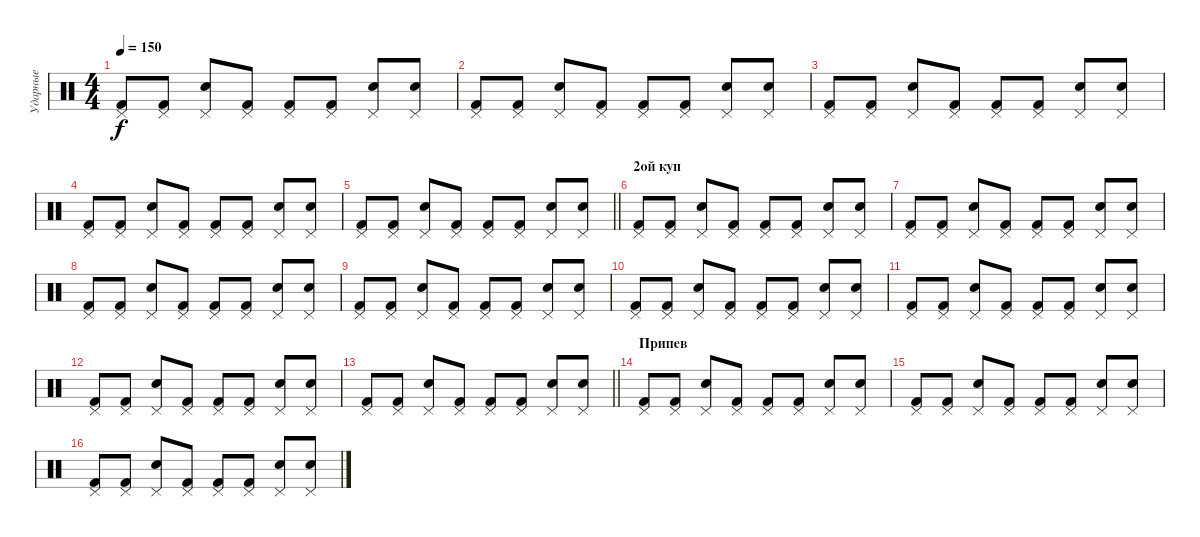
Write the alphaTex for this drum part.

\track ("Ударные" "Ударные") {instrument percussion}
\staff {score}
\articulation defaults
\ts (4 4)
\tempo 150
\clef neutral
\ks c
("Pedal Hi-Hat (hit)" "Kick (hit) 2").8{dy f} ("Pedal Hi-Hat (hit)" "Kick (hit) 2").8 ("Pedal Hi-Hat (hit)" "Electric Snare (hit)").8 ("Pedal Hi-Hat (hit)" "Kick (hit) 2").8 ("Pedal Hi-Hat (hit)" "Kick (hit) 2").8 ("Pedal Hi-Hat (hit)" "Kick (hit) 2").8 ("Pedal Hi-Hat (hit)" "Electric Snare (hit)").8 ("Pedal Hi-Hat (hit)" "Electric Snare (hit)").8 |
("Pedal Hi-Hat (hit)" "Kick (hit) 2").8 ("Pedal Hi-Hat (hit)" "Kick (hit) 2").8 ("Pedal Hi-Hat (hit)" "Electric Snare (hit)").8 ("Pedal Hi-Hat (hit)" "Kick (hit) 2").8 ("Pedal Hi-Hat (hit)" "Kick (hit) 2").8 ("Pedal Hi-Hat (hit)" "Kick (hit) 2").8 ("Pedal Hi-Hat (hit)" "Electric Snare (hit)").8 ("Pedal Hi-Hat (hit)" "Electric Snare (hit)").8 |
("Pedal Hi-Hat (hit)" "Kick (hit) 2").8 ("Pedal Hi-Hat (hit)" "Kick (hit) 2").8 ("Pedal Hi-Hat (hit)" "Electric Snare (hit)").8 ("Pedal Hi-Hat (hit)" "Kick (hit) 2").8 ("Pedal Hi-Hat (hit)" "Kick (hit) 2").8 ("Pedal Hi-Hat (hit)" "Kick (hit) 2").8 ("Pedal Hi-Hat (hit)" "Electric Snare (hit)").8 ("Pedal Hi-Hat (hit)" "Electric Snare (hit)").8 |
("Pedal Hi-Hat (hit)" "Kick (hit) 2").8 ("Pedal Hi-Hat (hit)" "Kick (hit) 2").8 ("Pedal Hi-Hat (hit)" "Electric Snare (hit)").8 ("Pedal Hi-Hat (hit)" "Kick (hit) 2").8 ("Pedal Hi-Hat (hit)" "Kick (hit) 2").8 ("Pedal Hi-Hat (hit)" "Kick (hit) 2").8 ("Pedal Hi-Hat (hit)" "Electric Snare (hit)").8 ("Pedal Hi-Hat (hit)" "Electric Snare (hit)").8 |
\barLineRight lightlight
("Pedal Hi-Hat (hit)" "Kick (hit) 2").8 ("Pedal Hi-Hat (hit)" "Kick (hit) 2").8 ("Pedal Hi-Hat (hit)" "Electric Snare (hit)").8 ("Pedal Hi-Hat (hit)" "Kick (hit) 2").8 ("Pedal Hi-Hat (hit)" "Kick (hit) 2").8 ("Pedal Hi-Hat (hit)" "Kick (hit) 2").8 ("Pedal Hi-Hat (hit)" "Electric Snare (hit)").8 ("Pedal Hi-Hat (hit)" "Electric Snare (hit)").8 |
\section ("" "2ой куп")
("Pedal Hi-Hat (hit)" "Kick (hit) 2").8 ("Pedal Hi-Hat (hit)" "Kick (hit) 2").8 ("Pedal Hi-Hat (hit)" "Electric Snare (hit)").8 ("Pedal Hi-Hat (hit)" "Kick (hit) 2").8 ("Pedal Hi-Hat (hit)" "Kick (hit) 2").8 ("Pedal Hi-Hat (hit)" "Kick (hit) 2").8 ("Pedal Hi-Hat (hit)" "Electric Snare (hit)").8 ("Pedal Hi-Hat (hit)" "Electric Snare (hit)").8 |
("Pedal Hi-Hat (hit)" "Kick (hit) 2").8 ("Pedal Hi-Hat (hit)" "Kick (hit) 2").8 ("Pedal Hi-Hat (hit)" "Electric Snare (hit)").8 ("Pedal Hi-Hat (hit)" "Kick (hit) 2").8 ("Pedal Hi-Hat (hit)" "Kick (hit) 2").8 ("Pedal Hi-Hat (hit)" "Kick (hit) 2").8 ("Pedal Hi-Hat (hit)" "Electric Snare (hit)").8 ("Pedal Hi-Hat (hit)" "Electric Snare (hit)").8 |
("Pedal Hi-Hat (hit)" "Kick (hit) 2").8 ("Pedal Hi-Hat (hit)" "Kick (hit) 2").8 ("Pedal Hi-Hat (hit)" "Electric Snare (hit)").8 ("Pedal Hi-Hat (hit)" "Kick (hit) 2").8 ("Pedal Hi-Hat (hit)" "Kick (hit) 2").8 ("Pedal Hi-Hat (hit)" "Kick (hit) 2").8 ("Pedal Hi-Hat (hit)" "Electric Snare (hit)").8 ("Pedal Hi-Hat (hit)" "Electric Snare (hit)").8 |
("Pedal Hi-Hat (hit)" "Kick (hit) 2").8 ("Pedal Hi-Hat (hit)" "Kick (hit) 2").8 ("Pedal Hi-Hat (hit)" "Electric Snare (hit)").8 ("Pedal Hi-Hat (hit)" "Kick (hit) 2").8 ("Pedal Hi-Hat (hit)" "Kick (hit) 2").8 ("Pedal Hi-Hat (hit)" "Kick (hit) 2").8 ("Pedal Hi-Hat (hit)" "Electric Snare (hit)").8 ("Pedal Hi-Hat (hit)" "Electric Snare (hit)").8 |
("Pedal Hi-Hat (hit)" "Kick (hit) 2").8 ("Pedal Hi-Hat (hit)" "Kick (hit) 2").8 ("Pedal Hi-Hat (hit)" "Electric Snare (hit)").8 ("Pedal Hi-Hat (hit)" "Kick (hit) 2").8 ("Pedal Hi-Hat (hit)" "Kick (hit) 2").8 ("Pedal Hi-Hat (hit)" "Kick (hit) 2").8 ("Pedal Hi-Hat (hit)" "Electric Snare (hit)").8 ("Pedal Hi-Hat (hit)" "Electric Snare (hit)").8 |
("Pedal Hi-Hat (hit)" "Kick (hit) 2").8 ("Pedal Hi-Hat (hit)" "Kick (hit) 2").8 ("Pedal Hi-Hat (hit)" "Electric Snare (hit)").8 ("Pedal Hi-Hat (hit)" "Kick (hit) 2").8 ("Pedal Hi-Hat (hit)" "Kick (hit) 2").8 ("Pedal Hi-Hat (hit)" "Kick (hit) 2").8 ("Pedal Hi-Hat (hit)" "Electric Snare (hit)").8 ("Pedal Hi-Hat (hit)" "Electric Snare (hit)").8 |
("Pedal Hi-Hat (hit)" "Kick (hit) 2").8 ("Pedal Hi-Hat (hit)" "Kick (hit) 2").8 ("Pedal Hi-Hat (hit)" "Electric Snare (hit)").8 ("Pedal Hi-Hat (hit)" "Kick (hit) 2").8 ("Pedal Hi-Hat (hit)" "Kick (hit) 2").8 ("Pedal Hi-Hat (hit)" "Kick (hit) 2").8 ("Pedal Hi-Hat (hit)" "Electric Snare (hit)").8 ("Pedal Hi-Hat (hit)" "Electric Snare (hit)").8 |
\barLineRight lightlight
("Pedal Hi-Hat (hit)" "Kick (hit) 2").8 ("Pedal Hi-Hat (hit)" "Kick (hit) 2").8 ("Pedal Hi-Hat (hit)" "Electric Snare (hit)").8 ("Pedal Hi-Hat (hit)" "Kick (hit) 2").8 ("Pedal Hi-Hat (hit)" "Kick (hit) 2").8 ("Pedal Hi-Hat (hit)" "Kick (hit) 2").8 ("Pedal Hi-Hat (hit)" "Electric Snare (hit)").8 ("Pedal Hi-Hat (hit)" "Electric Snare (hit)").8 |
\section ("" "Припев")
("Pedal Hi-Hat (hit)" "Kick (hit) 2").8 ("Pedal Hi-Hat (hit)" "Kick (hit) 2").8 ("Pedal Hi-Hat (hit)" "Electric Snare (hit)").8 ("Pedal Hi-Hat (hit)" "Kick (hit) 2").8 ("Pedal Hi-Hat (hit)" "Kick (hit) 2").8 ("Pedal Hi-Hat (hit)" "Kick (hit) 2").8 ("Pedal Hi-Hat (hit)" "Electric Snare (hit)").8 ("Pedal Hi-Hat (hit)" "Electric Snare (hit)").8 |
("Pedal Hi-Hat (hit)" "Kick (hit) 2").8 ("Pedal Hi-Hat (hit)" "Kick (hit) 2").8 ("Pedal Hi-Hat (hit)" "Electric Snare (hit)").8 ("Pedal Hi-Hat (hit)" "Kick (hit) 2").8 ("Pedal Hi-Hat (hit)" "Kick (hit) 2").8 ("Pedal Hi-Hat (hit)" "Kick (hit) 2").8 ("Pedal Hi-Hat (hit)" "Electric Snare (hit)").8 ("Pedal Hi-Hat (hit)" "Electric Snare (hit)").8 |
("Pedal Hi-Hat (hit)" "Kick (hit) 2").8 ("Pedal Hi-Hat (hit)" "Kick (hit) 2").8 ("Pedal Hi-Hat (hit)" "Electric Snare (hit)").8 ("Pedal Hi-Hat (hit)" "Kick (hit) 2").8 ("Pedal Hi-Hat (hit)" "Kick (hit) 2").8 ("Pedal Hi-Hat (hit)" "Kick (hit) 2").8 ("Pedal Hi-Hat (hit)" "Electric Snare (hit)").8 ("Pedal Hi-Hat (hit)" "Electric Snare (hit)").8
